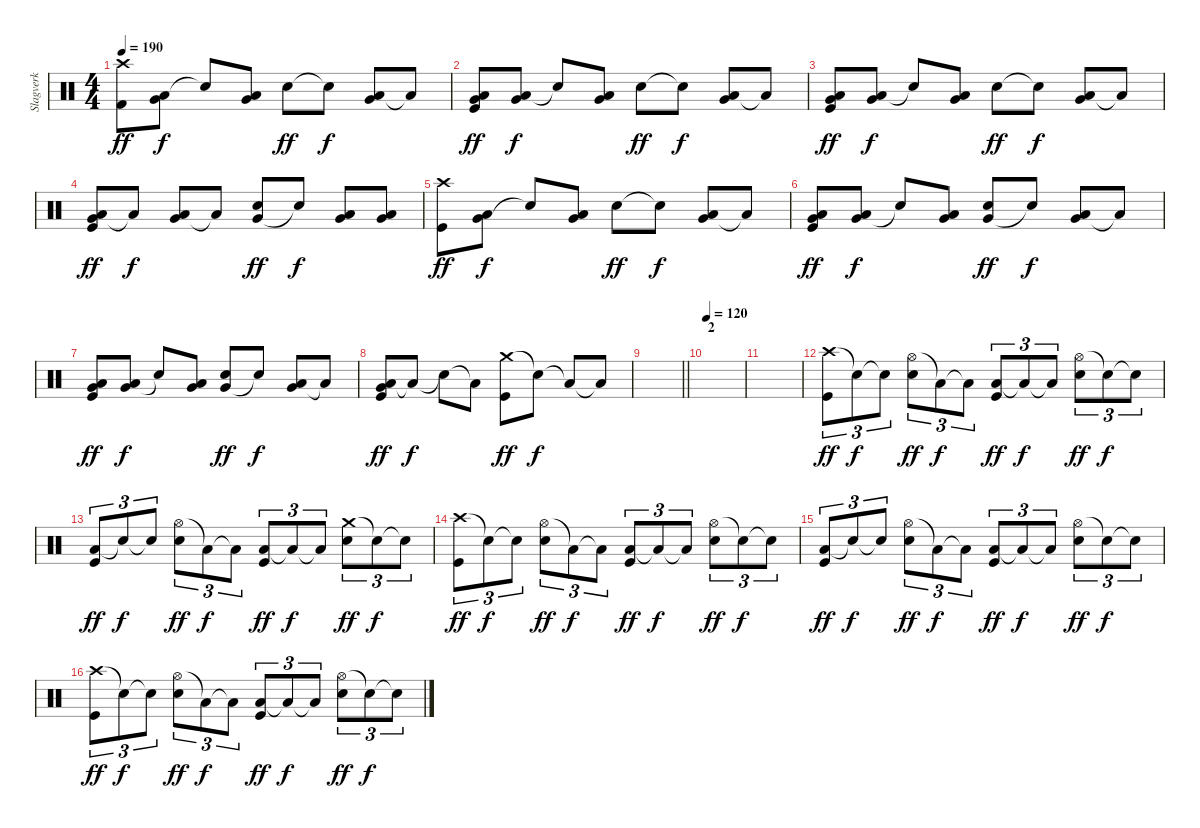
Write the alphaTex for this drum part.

\track ("Slagverk" "Slagverk") {instrument percussion}
\staff {score}
\articulation defaults
\ts (4 4)
\tempo 190
\clef neutral
\ks c
("Crash high (hit)" "Kick (hit) 2").8{dy ff} ("Low Tom (hit)" "Very Low Tom (hit)").8{bu 60 dy f} "Snare (hit)"{t}.8 ("Low Tom (hit)" "Very Low Tom (hit)").8{bu 60} "Snare (hit) 2".8{dy ff} "Snare (hit)"{t}.8{dy f} ("Low Tom (hit)" "Very Low Tom (hit)").8{bu 60} "Low Floor Tom (hit)"{t}.8 |
("Low Tom (hit)" "Very Low Tom (hit)" "Kick (hit)").8{bu 60 dy ff} ("Low Tom (hit)" "Very Low Tom (hit)").8{bu 60 dy f} "Snare (hit)"{t}.8 ("Low Tom (hit)" "Very Low Tom (hit)").8{bu 60} "Snare (hit) 2".8{dy ff} "Snare (hit)"{t}.8{dy f} ("Low Tom (hit)" "Very Low Tom (hit)").8{bu 60} "Low Floor Tom (hit)"{t}.8 |
("Low Tom (hit)" "Very Low Tom (hit)" "Kick (hit)").8{bu 60 dy ff} ("Low Tom (hit)" "Very Low Tom (hit)").8{bu 60 dy f} "Snare (hit)"{t}.8 ("Low Tom (hit)" "Very Low Tom (hit)").8{bu 60} "Snare (hit) 2".8{dy ff} "Snare (hit)"{t}.8{dy f} ("Low Tom (hit)" "Very Low Tom (hit)").8{bu 60} "Low Floor Tom (hit)"{t}.8 |
("Very Low Tom (hit)" "Low Floor Tom (hit)" "Kick (hit)").8{bu 60 dy ff} "Low Floor Tom (hit)"{t}.8{dy f} ("Very Low Tom (hit)" "Low Floor Tom (hit)").8{bu 120} "Low Floor Tom (hit)"{t}.8 ("Very Low Tom (hit)" "Snare (hit) 2").8{bu 60 dy ff} "Snare (hit)"{t}.8{dy f} ("Very Low Tom (hit)" "Low Floor Tom (hit)").8{bu 60} ("Very Low Tom (hit)" "Low Floor Tom (hit)").8{bu 60} |
("Crash high (hit)" "Kick (hit)").8{dy ff} ("Very Low Tom (hit)" "Low Floor Tom (hit)").8{bu 60 dy f} "Snare (hit)"{t}.8 ("Very Low Tom (hit)" "Low Floor Tom (hit)").8{bu 60} "Snare (hit) 2".8{dy ff} "Snare (hit)"{t}.8{dy f} ("Very Low Tom (hit)" "Low Floor Tom (hit)").8{bu 60} "Low Floor Tom (hit)"{t}.8 |
("Very Low Tom (hit)" "Low Floor Tom (hit)" "Kick (hit)").8{bu 60 dy ff} ("Very Low Tom (hit)" "Low Floor Tom (hit)").8{bu 60 dy f} "Snare (hit)"{t}.8 ("Very Low Tom (hit)" "Low Floor Tom (hit)").8{bu 60} ("Very Low Tom (hit)" "Snare (hit) 2").8{bu 60 dy ff} "Snare (hit)"{t}.8{dy f} ("Very Low Tom (hit)" "Low Floor Tom (hit)").8{bu 60} "Low Floor Tom (hit)"{t}.8 |
("Very Low Tom (hit)" "Low Floor Tom (hit)" "Kick (hit)").8{bu 60 dy ff} ("Very Low Tom (hit)" "Low Floor Tom (hit)").8{bu 60 dy f} "Snare (hit)"{t}.8 ("Very Low Tom (hit)" "Low Floor Tom (hit)").8{bu 60} ("Very Low Tom (hit)" "Snare (hit) 2").8{bu 60 dy ff} "Snare (hit)"{t}.8{dy f} ("Very Low Tom (hit)" "Low Floor Tom (hit)").8{bu 60} "Low Floor Tom (hit)"{t}.8 |
("Low Floor Tom (hit)" "Very Low Tom (hit)" "Kick (hit)").8{bu 120 dy ff} "Low Floor Tom (hit)"{t}.8{dy f} "Snare (hit)"{t}.8 "Low Floor Tom (hit)"{t}.8 ("Crash medium (hit)" "Kick (hit)").8{dy ff} "Snare (hit)"{t}.8{dy f} "Low Floor Tom (hit)"{t}.8 "Low Floor Tom (hit)"{t}.8 |
\barLineRight lightlight
|
\section ("" "2")
\tempo 120
|
|
("Crash high (hit)" "Kick (hit)").8{tu (3 2) dy ff} "Snare (hit)"{t}.8{tu (3 2) dy f} "Snare (hit)"{t}.8{tu (3 2)} ("Hi-Hat (open)" "Snare (hit) 2").8{tu (3 2) dy ff} "Low Floor Tom (hit)"{t}.8{tu (3 2) dy f} "Low Floor Tom (hit)"{t}.8{tu (3 2)} ("Low Floor Tom (hit)" "Kick (hit)").8{tu (3 2) dy ff} "Low Floor Tom (hit)"{t}.8{tu (3 2) dy f} "Low Floor Tom (hit)"{t}.8{tu (3 2)} ("Hi-Hat (open)" "Snare (hit) 2").8{tu (3 2) dy ff} "Snare (hit)"{t}.8{tu (3 2) dy f} "Snare (hit)"{t}.8{tu (3 2)} |
("Low Floor Tom (hit)" "Kick (hit)").8{tu (3 2) dy ff} "Snare (hit)"{t}.8{tu (3 2) dy f} "Snare (hit)"{t}.8{tu (3 2)} ("Hi-Hat (open)" "Snare (hit) 2").8{tu (3 2) dy ff} "Low Floor Tom (hit)"{t}.8{tu (3 2) dy f} "Low Floor Tom (hit)"{t}.8{tu (3 2)} ("Low Floor Tom (hit)" "Kick (hit)").8{tu (3 2) dy ff} "Low Floor Tom (hit)"{t}.8{tu (3 2) dy f} "Low Floor Tom (hit)"{t}.8{tu (3 2)} ("Crash medium (hit)" "Snare (hit) 2").8{tu (3 2) dy ff} "Snare (hit)"{t}.8{tu (3 2) dy f} "Snare (hit)"{t}.8{tu (3 2)} |
("Crash high (hit)" "Kick (hit)").8{tu (3 2) dy ff} "Snare (hit)"{t}.8{tu (3 2) dy f} "Snare (hit)"{t}.8{tu (3 2)} ("Hi-Hat (open)" "Snare (hit) 2").8{tu (3 2) dy ff} "Low Floor Tom (hit)"{t}.8{tu (3 2) dy f} "Low Floor Tom (hit)"{t}.8{tu (3 2)} ("Low Floor Tom (hit)" "Kick (hit)").8{tu (3 2) dy ff} "Low Floor Tom (hit)"{t}.8{tu (3 2) dy f} "Low Floor Tom (hit)"{t}.8{tu (3 2)} ("Hi-Hat (open)" "Snare (hit) 2").8{tu (3 2) dy ff} "Snare (hit)"{t}.8{tu (3 2) dy f} "Snare (hit)"{t}.8{tu (3 2)} |
("Low Floor Tom (hit)" "Kick (hit)").8{tu (3 2) dy ff} "Snare (hit)"{t}.8{tu (3 2) dy f} "Snare (hit)"{t}.8{tu (3 2)} ("Hi-Hat (open)" "Snare (hit) 2").8{tu (3 2) dy ff} "Low Floor Tom (hit)"{t}.8{tu (3 2) dy f} "Low Floor Tom (hit)"{t}.8{tu (3 2)} ("Low Floor Tom (hit)" "Kick (hit)").8{tu (3 2) dy ff} "Low Floor Tom (hit)"{t}.8{tu (3 2) dy f} "Low Floor Tom (hit)"{t}.8{tu (3 2)} ("Hi-Hat (open)" "Snare (hit) 2").8{tu (3 2) dy ff} "Snare (hit)"{t}.8{tu (3 2) dy f} "Snare (hit)"{t}.8{tu (3 2)} |
("Crash high (hit)" "Kick (hit)").8{tu (3 2) dy ff} "Snare (hit)"{t}.8{tu (3 2) dy f} "Snare (hit)"{t}.8{tu (3 2)} ("Hi-Hat (open)" "Snare (hit) 2").8{tu (3 2) dy ff} "Low Floor Tom (hit)"{t}.8{tu (3 2) dy f} "Low Floor Tom (hit)"{t}.8{tu (3 2)} ("Low Floor Tom (hit)" "Kick (hit)").8{tu (3 2) dy ff} "Low Floor Tom (hit)"{t}.8{tu (3 2) dy f} "Low Floor Tom (hit)"{t}.8{tu (3 2)} ("Hi-Hat (open)" "Snare (hit) 2").8{tu (3 2) dy ff} "Snare (hit)"{t}.8{tu (3 2) dy f} "Snare (hit)"{t}.8{tu (3 2)}
